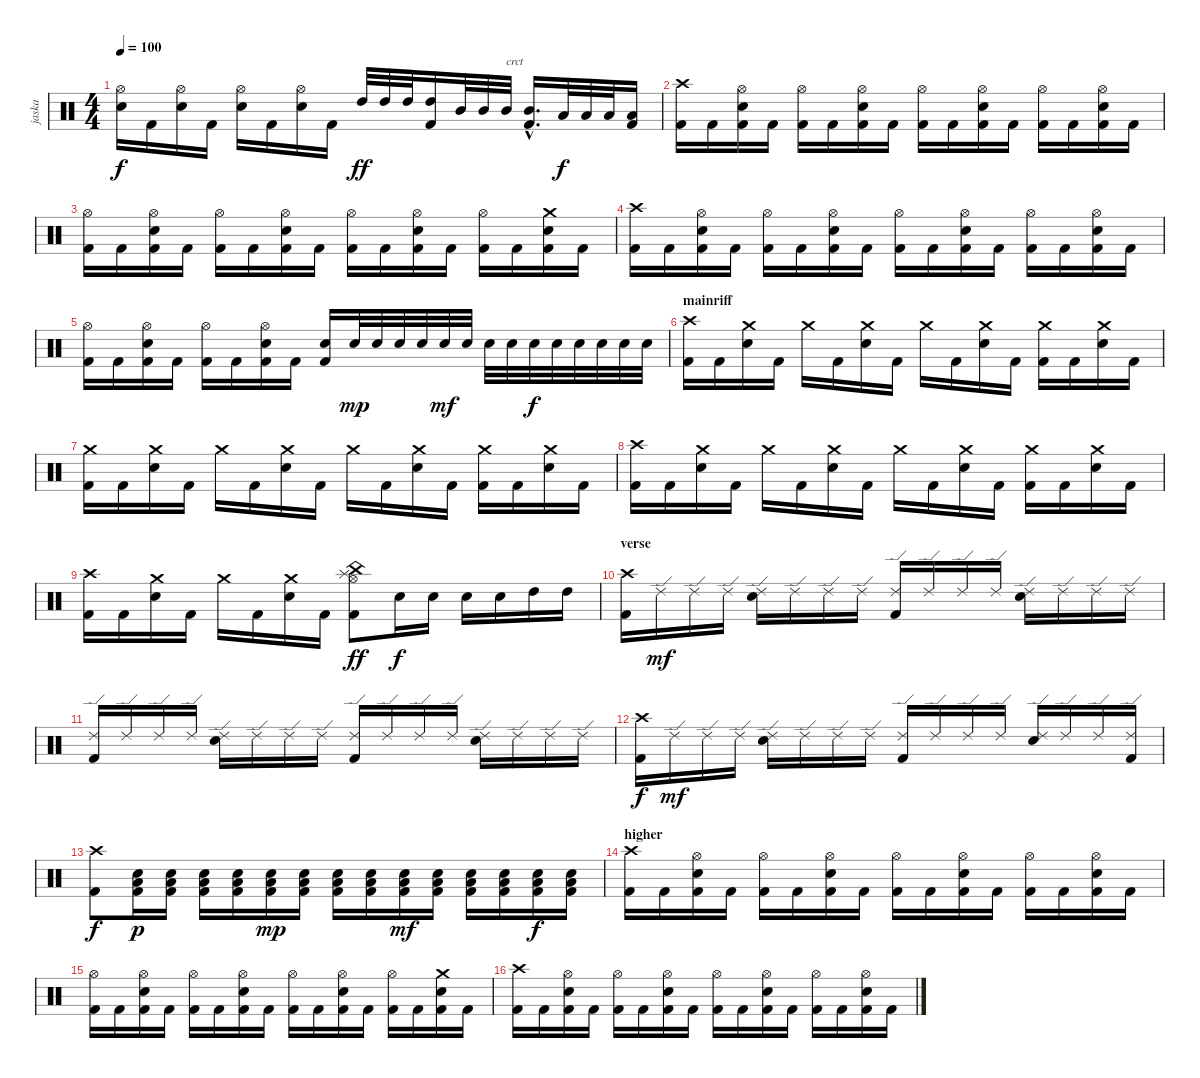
\track ("jaska" "jaska") {instrument percussion}
\staff {score}
\articulation defaults
\ts (4 4)
\tempo 100
\clef neutral
\ks c
("Hi-Hat (open)" "Electric Snare (hit)").16{dy f} "Kick (hit) 2".16 ("Hi-Hat (open)" "Electric Snare (hit)").16 "Kick (hit) 2".16 ("Hi-Hat (open)" "Electric Snare (hit)").16 "Kick (hit) 2".16 ("Hi-Hat (open)" "Electric Snare (hit)").16 "Kick (hit) 2".16 "High Tom (hit)".32{dy ff} "High Tom (hit)".32 "High Tom (hit)".32 ("High Tom (hit)" "Kick (hit) 2").16 "Mid Tom (hit)".32 "Mid Tom (hit)".32 "Mid Tom (hit)".32{txt "crct"} ("Mid Tom (hit)"{hac} "Kick (hit) 2"{hac}).16{d} "Low Tom (hit)".32{dy f} "Low Tom (hit)".32 "Low Tom (hit)".32 ("Low Tom (hit)" "Kick (hit) 2").16 |
("Crash high (hit)" "Kick (hit) 2").16 "Kick (hit) 2".16 ("Hi-Hat (open)" "Electric Snare (hit)" "Kick (hit) 2").16 "Kick (hit) 2".16 ("Hi-Hat (open)" "Kick (hit) 2").16 "Kick (hit) 2".16 ("Hi-Hat (open)" "Electric Snare (hit)" "Kick (hit) 2").16 "Kick (hit) 2".16 ("Hi-Hat (open)" "Kick (hit) 2").16 "Kick (hit) 2".16 ("Hi-Hat (open)" "Electric Snare (hit)" "Kick (hit) 2").16 "Kick (hit) 2".16 ("Hi-Hat (open)" "Kick (hit) 2").16 "Kick (hit) 2".16 ("Hi-Hat (open)" "Electric Snare (hit)" "Kick (hit) 2").16 "Kick (hit) 2".16 |
("Hi-Hat (open)" "Kick (hit) 2").16 "Kick (hit) 2".16 ("Hi-Hat (open)" "Electric Snare (hit)" "Kick (hit) 2").16 "Kick (hit) 2".16 ("Hi-Hat (open)" "Kick (hit) 2").16 "Kick (hit) 2".16 ("Hi-Hat (open)" "Electric Snare (hit)" "Kick (hit) 2").16 "Kick (hit) 2".16 ("Hi-Hat (open)" "Kick (hit) 2").16 "Kick (hit) 2".16 ("Hi-Hat (open)" "Electric Snare (hit)" "Kick (hit) 2").16 "Kick (hit) 2".16 ("Hi-Hat (open)" "Kick (hit) 2").16 "Kick (hit) 2".16 ("Crash medium (hit)" "Electric Snare (hit)" "Kick (hit) 2").16 "Kick (hit) 2".16 |
("Crash high (hit)" "Kick (hit) 2").16 "Kick (hit) 2".16 ("Hi-Hat (open)" "Electric Snare (hit)" "Kick (hit) 2").16 "Kick (hit) 2".16 ("Hi-Hat (open)" "Kick (hit) 2").16 "Kick (hit) 2".16 ("Hi-Hat (open)" "Electric Snare (hit)" "Kick (hit) 2").16 "Kick (hit) 2".16 ("Hi-Hat (open)" "Kick (hit) 2").16 "Kick (hit) 2".16 ("Hi-Hat (open)" "Electric Snare (hit)" "Kick (hit) 2").16 "Kick (hit) 2".16 ("Hi-Hat (open)" "Kick (hit) 2").16 "Kick (hit) 2".16 ("Hi-Hat (open)" "Electric Snare (hit)" "Kick (hit) 2").16 "Kick (hit) 2".16 |
("Hi-Hat (open)" "Kick (hit) 2").16 "Kick (hit) 2".16 ("Hi-Hat (open)" "Electric Snare (hit)" "Kick (hit) 2").16 "Kick (hit) 2".16 ("Hi-Hat (open)" "Kick (hit) 2").16 "Kick (hit) 2".16 ("Hi-Hat (open)" "Electric Snare (hit)" "Kick (hit) 2").16 "Kick (hit) 2".16 ("Electric Snare (hit)" "Kick (hit) 2").16 "Electric Snare (hit)".32{dy mp} "Electric Snare (hit)".32 "Electric Snare (hit)".32 "Electric Snare (hit)".32 "Electric Snare (hit)".32{dy mf} "Electric Snare (hit)".32 "Electric Snare (hit)".32 "Electric Snare (hit)".32 "Electric Snare (hit)".32{dy f} "Electric Snare (hit)".32 "Electric Snare (hit)".32 "Electric Snare (hit)".32 "Electric Snare (hit)".32 "Electric Snare (hit)".32 |
\section ("" "mainriff")
("Crash high (hit)" "Kick (hit) 2").16 "Kick (hit) 2".16 ("Crash medium (hit)" "Electric Snare (hit)").16 "Kick (hit) 2".16 "Crash medium (hit)".16 "Kick (hit) 2".16 ("Crash medium (hit)" "Electric Snare (hit)").16 "Kick (hit) 2".16 "Crash medium (hit)".16 "Kick (hit) 2".16 ("Crash medium (hit)" "Electric Snare (hit)").16 "Kick (hit) 2".16 ("Crash medium (hit)" "Kick (hit) 2").16 "Kick (hit) 2".16 ("Crash medium (hit)" "Electric Snare (hit)").16 "Kick (hit) 2".16 |
("Crash medium (hit)" "Kick (hit) 2").16 "Kick (hit) 2".16 ("Crash medium (hit)" "Electric Snare (hit)").16 "Kick (hit) 2".16 "Crash medium (hit)".16 "Kick (hit) 2".16 ("Crash medium (hit)" "Electric Snare (hit)").16 "Kick (hit) 2".16 "Crash medium (hit)".16 "Kick (hit) 2".16 ("Crash medium (hit)" "Electric Snare (hit)").16 "Kick (hit) 2".16 ("Crash medium (hit)" "Kick (hit) 2").16 "Kick (hit) 2".16 ("Crash medium (hit)" "Electric Snare (hit)").16 "Kick (hit) 2".16 |
("Crash high (hit)" "Kick (hit) 2").16 "Kick (hit) 2".16 ("Crash medium (hit)" "Electric Snare (hit)").16 "Kick (hit) 2".16 "Crash medium (hit)".16 "Kick (hit) 2".16 ("Crash medium (hit)" "Electric Snare (hit)").16 "Kick (hit) 2".16 "Crash medium (hit)".16 "Kick (hit) 2".16 ("Crash medium (hit)" "Electric Snare (hit)").16 "Kick (hit) 2".16 ("Crash medium (hit)" "Kick (hit) 2").16 "Kick (hit) 2".16 ("Crash medium (hit)" "Electric Snare (hit)").16 "Kick (hit) 2".16 |
("Crash high (hit)" "Kick (hit) 2").16 "Kick (hit) 2".16 ("Crash medium (hit)" "Electric Snare (hit)").16 "Kick (hit) 2".16 "Crash medium (hit)".16 "Kick (hit) 2".16 ("Crash medium (hit)" "Electric Snare (hit)").16 "Kick (hit) 2".16 ("Hi-Hat (open)" "China (hit)" "Splash (hit)" "Kick (hit) 2").8{dy ff} "Electric Snare (hit)".16{dy f} "Electric Snare (hit)".16 "Electric Snare (hit)".16 "Electric Snare (hit)".16 "High Tom (hit)".16 "High Tom (hit)".16 |
\section ("" "verse")
("Crash high (hit)" "Kick (hit) 2").16 "Ride (edge) 2".16{dy mf} "Ride (edge) 2".16 "Ride (edge) 2".16 ("Ride (edge) 2" "Electric Snare (hit)").16 "Ride (edge) 2".16 "Ride (edge) 2".16 "Ride (edge) 2".16 ("Ride (edge) 2" "Kick (hit) 2").16 "Ride (edge) 2".16 "Ride (edge) 2".16 "Ride (edge) 2".16 ("Ride (edge) 2" "Electric Snare (hit)").16 "Ride (edge) 2".16 "Ride (edge) 2".16 "Ride (edge) 2".16 |
("Ride (edge) 2" "Kick (hit) 2").16 "Ride (edge) 2".16 "Ride (edge) 2".16 "Ride (edge) 2".16 ("Ride (edge) 2" "Electric Snare (hit)").16 "Ride (edge) 2".16 "Ride (edge) 2".16 "Ride (edge) 2".16 ("Ride (edge) 2" "Kick (hit) 2").16 "Ride (edge) 2".16 "Ride (edge) 2".16 "Ride (edge) 2".16 ("Ride (edge) 2" "Electric Snare (hit)").16 "Ride (edge) 2".16 "Ride (edge) 2".16 "Ride (edge) 2".16 |
("Crash high (hit)" "Kick (hit) 2").16{dy f} "Ride (edge) 2".16{dy mf} "Ride (edge) 2".16 "Ride (edge) 2".16 ("Ride (edge) 2" "Electric Snare (hit)").16 "Ride (edge) 2".16 "Ride (edge) 2".16 "Ride (edge) 2".16 ("Ride (edge) 2" "Kick (hit) 2").16 "Ride (edge) 2".16 "Ride (edge) 2".16 "Ride (edge) 2".16 ("Ride (edge) 2" "Electric Snare (hit)").16 "Ride (edge) 2".16 "Ride (edge) 2".16 ("Ride (edge) 2" "Kick (hit) 2").16 |
("Crash high (hit)" "Kick (hit) 2").8{dy f} ("Electric Snare (hit)" "Low Floor Tom (hit)" "Kick (hit) 2").16{dy p} ("Electric Snare (hit)" "Low Floor Tom (hit)" "Kick (hit) 2").16 ("Electric Snare (hit)" "Low Floor Tom (hit)" "Kick (hit) 2").16 ("Electric Snare (hit)" "Low Floor Tom (hit)" "Kick (hit) 2").16 ("Electric Snare (hit)" "Low Floor Tom (hit)" "Kick (hit) 2").16{dy mp} ("Electric Snare (hit)" "Low Floor Tom (hit)" "Kick (hit) 2").16 ("Electric Snare (hit)" "Low Floor Tom (hit)" "Kick (hit) 2").16 ("Electric Snare (hit)" "Low Floor Tom (hit)" "Kick (hit) 2").16 ("Electric Snare (hit)" "Low Floor Tom (hit)" "Kick (hit) 2").16{dy mf} ("Electric Snare (hit)" "Low Floor Tom (hit)" "Kick (hit) 2").16 ("Electric Snare (hit)" "Low Floor Tom (hit)" "Kick (hit) 2").16 ("Electric Snare (hit)" "Low Floor Tom (hit)" "Kick (hit) 2").16 ("Electric Snare (hit)" "Low Floor Tom (hit)" "Kick (hit) 2").16{dy f} ("Electric Snare (hit)" "Low Floor Tom (hit)" "Kick (hit) 2").16 |
\section ("" "higher")
("Crash high (hit)" "Kick (hit) 2").16 "Kick (hit) 2".16 ("Hi-Hat (open)" "Electric Snare (hit)" "Kick (hit) 2").16 "Kick (hit) 2".16 ("Hi-Hat (open)" "Kick (hit) 2").16 "Kick (hit) 2".16 ("Hi-Hat (open)" "Electric Snare (hit)" "Kick (hit) 2").16 "Kick (hit) 2".16 ("Hi-Hat (open)" "Kick (hit) 2").16 "Kick (hit) 2".16 ("Hi-Hat (open)" "Electric Snare (hit)" "Kick (hit) 2").16 "Kick (hit) 2".16 ("Hi-Hat (open)" "Kick (hit) 2").16 "Kick (hit) 2".16 ("Hi-Hat (open)" "Electric Snare (hit)" "Kick (hit) 2").16 "Kick (hit) 2".16 |
("Hi-Hat (open)" "Kick (hit) 2").16 "Kick (hit) 2".16 ("Hi-Hat (open)" "Electric Snare (hit)" "Kick (hit) 2").16 "Kick (hit) 2".16 ("Hi-Hat (open)" "Kick (hit) 2").16 "Kick (hit) 2".16 ("Hi-Hat (open)" "Electric Snare (hit)" "Kick (hit) 2").16 "Kick (hit) 2".16 ("Hi-Hat (open)" "Kick (hit) 2").16 "Kick (hit) 2".16 ("Hi-Hat (open)" "Electric Snare (hit)" "Kick (hit) 2").16 "Kick (hit) 2".16 ("Hi-Hat (open)" "Kick (hit) 2").16 "Kick (hit) 2".16 ("Crash medium (hit)" "Electric Snare (hit)" "Kick (hit) 2").16 "Kick (hit) 2".16 |
("Crash high (hit)" "Kick (hit) 2").16 "Kick (hit) 2".16 ("Hi-Hat (open)" "Electric Snare (hit)" "Kick (hit) 2").16 "Kick (hit) 2".16 ("Hi-Hat (open)" "Kick (hit) 2").16 "Kick (hit) 2".16 ("Hi-Hat (open)" "Electric Snare (hit)" "Kick (hit) 2").16 "Kick (hit) 2".16 ("Hi-Hat (open)" "Kick (hit) 2").16 "Kick (hit) 2".16 ("Hi-Hat (open)" "Electric Snare (hit)" "Kick (hit) 2").16 "Kick (hit) 2".16 ("Hi-Hat (open)" "Kick (hit) 2").16 "Kick (hit) 2".16 ("Hi-Hat (open)" "Electric Snare (hit)" "Kick (hit) 2").16 "Kick (hit) 2".16
